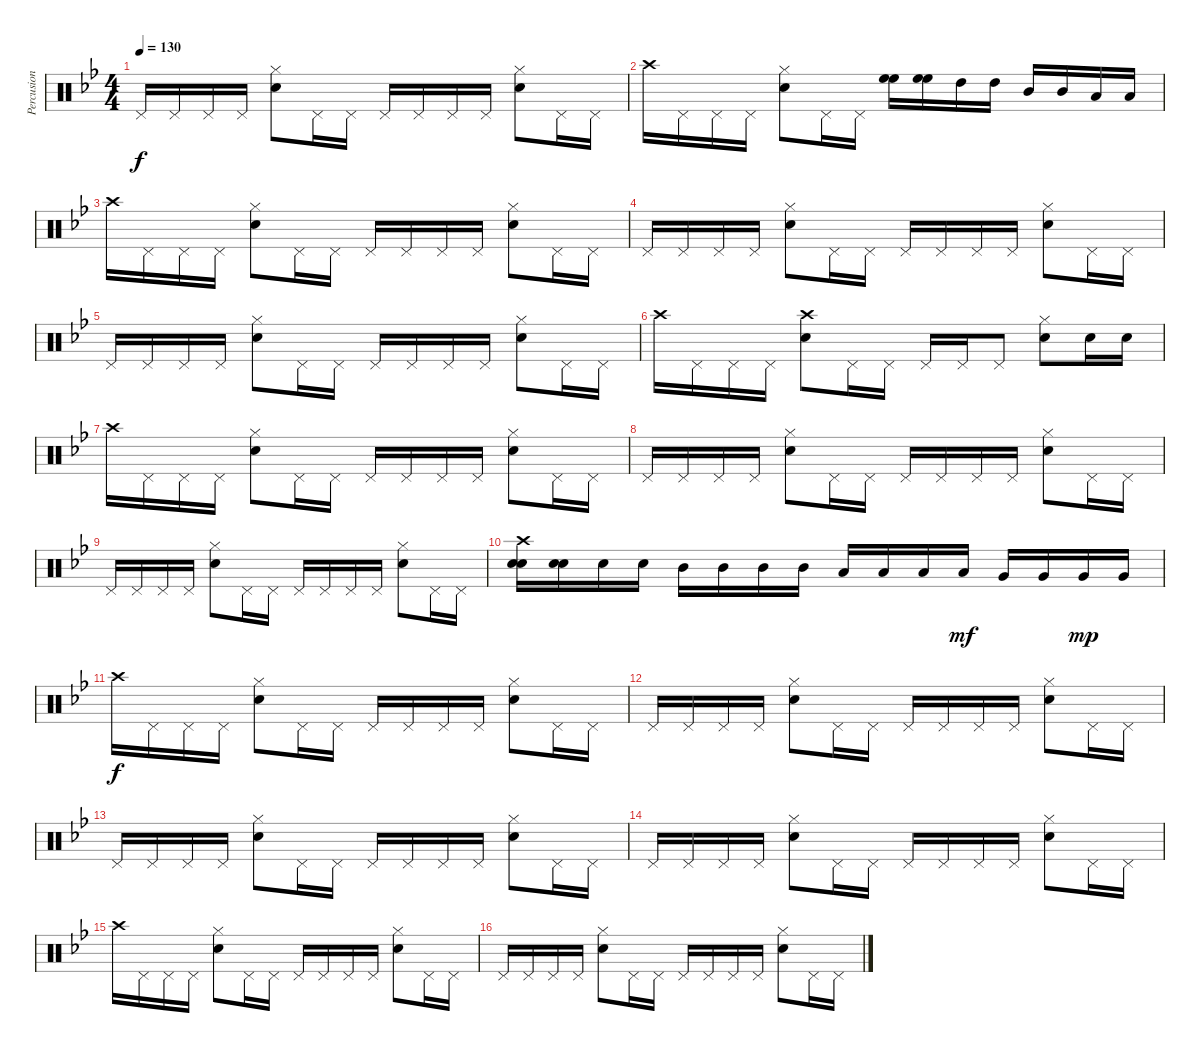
\track ("Percusion I" "Percusion ") {instrument percussion}
\staff {score}
\articulation defaults
\ts (4 4)
\tempo 130
\clef neutral
\ks gminor "Pedal Hi-Hat (hit)".16{dy f} "Pedal Hi-Hat (hit)".16 "Pedal Hi-Hat (hit)".16 "Pedal Hi-Hat (hit)".16
("Hi-Hat (closed)" "Snare (hit) 2").8 "Pedal Hi-Hat (hit)".16 "Pedal Hi-Hat (hit)".16 "Pedal Hi-Hat (hit)".16 "Pedal Hi-Hat (hit)".16 "Pedal Hi-Hat (hit)".16 "Pedal Hi-Hat (hit)".16 ("Snare (hit) 2" "Hi-Hat (closed)").8 "Pedal Hi-Hat (hit)".16 "Pedal Hi-Hat (hit)".16 |
"Crash high (hit)".16 "Pedal Hi-Hat (hit)".16 "Pedal Hi-Hat (hit)".16 "Pedal Hi-Hat (hit)".16 ("Snare (hit) 2" "Hi-Hat (closed)").8 "Pedal Hi-Hat (hit)".16 "Pedal Hi-Hat (hit)".16 ("High Floor Tom (hit)" "High Floor Tom (hit)").16 ("High Floor Tom (hit)" "High Floor Tom (hit)").16 "High Tom (hit)".16 "High Tom (hit)".16 "Mid Tom (hit)".16 "Mid Tom (hit)".16 "Low Tom (hit)".16 "Low Tom (hit)".16 |
"Crash high (hit)".16 "Pedal Hi-Hat (hit)".16 "Pedal Hi-Hat (hit)".16 "Pedal Hi-Hat (hit)".16 ("Snare (hit) 2" "Hi-Hat (closed)").8 "Pedal Hi-Hat (hit)".16 "Pedal Hi-Hat (hit)".16 "Pedal Hi-Hat (hit)".16 "Pedal Hi-Hat (hit)".16 "Pedal Hi-Hat (hit)".16 "Pedal Hi-Hat (hit)".16 ("Snare (hit) 2" "Hi-Hat (closed)").8 "Pedal Hi-Hat (hit)".16 "Pedal Hi-Hat (hit)".16 |
"Pedal Hi-Hat (hit)".16 "Pedal Hi-Hat (hit)".16 "Pedal Hi-Hat (hit)".16 "Pedal Hi-Hat (hit)".16 ("Snare (hit) 2" "Hi-Hat (closed)").8 "Pedal Hi-Hat (hit)".16 "Pedal Hi-Hat (hit)".16 "Pedal Hi-Hat (hit)".16 "Pedal Hi-Hat (hit)".16 "Pedal Hi-Hat (hit)".16 "Pedal Hi-Hat (hit)".16 ("Snare (hit) 2" "Hi-Hat (closed)").8 "Pedal Hi-Hat (hit)".16 "Pedal Hi-Hat (hit)".16 |
"Pedal Hi-Hat (hit)".16 "Pedal Hi-Hat (hit)".16 "Pedal Hi-Hat (hit)".16 "Pedal Hi-Hat (hit)".16 ("Hi-Hat (closed)" "Snare (hit) 2").8 "Pedal Hi-Hat (hit)".16 "Pedal Hi-Hat (hit)".16 "Pedal Hi-Hat (hit)".16 "Pedal Hi-Hat (hit)".16 "Pedal Hi-Hat (hit)".16 "Pedal Hi-Hat (hit)".16 ("Snare (hit) 2" "Hi-Hat (closed)").8 "Pedal Hi-Hat (hit)".16 "Pedal Hi-Hat (hit)".16 |
"Crash high (hit)".16 "Pedal Hi-Hat (hit)".16 "Pedal Hi-Hat (hit)".16 "Pedal Hi-Hat (hit)".16 ("Snare (hit) 2" "Crash high (hit)").8 "Pedal Hi-Hat (hit)".16 "Pedal Hi-Hat (hit)".16 "Pedal Hi-Hat (hit)".16 "Pedal Hi-Hat (hit)".16 "Pedal Hi-Hat (hit)".8 ("Snare (hit) 2" "Hi-Hat (closed)").8 "Snare (hit) 2".16 "Snare (hit) 2".16 |
"Crash high (hit)".16 "Pedal Hi-Hat (hit)".16 "Pedal Hi-Hat (hit)".16 "Pedal Hi-Hat (hit)".16 ("Snare (hit) 2" "Hi-Hat (closed)").8 "Pedal Hi-Hat (hit)".16 "Pedal Hi-Hat (hit)".16 "Pedal Hi-Hat (hit)".16 "Pedal Hi-Hat (hit)".16 "Pedal Hi-Hat (hit)".16 "Pedal Hi-Hat (hit)".16 ("Snare (hit) 2" "Hi-Hat (closed)").8 "Pedal Hi-Hat (hit)".16 "Pedal Hi-Hat (hit)".16 |
"Pedal Hi-Hat (hit)".16 "Pedal Hi-Hat (hit)".16 "Pedal Hi-Hat (hit)".16 "Pedal Hi-Hat (hit)".16 ("Hi-Hat (closed)" "Snare (hit) 2").8 "Pedal Hi-Hat (hit)".16 "Pedal Hi-Hat (hit)".16 "Pedal Hi-Hat (hit)".16 "Pedal Hi-Hat (hit)".16 "Pedal Hi-Hat (hit)".16 "Pedal Hi-Hat (hit)".16 ("Snare (hit) 2" "Hi-Hat (closed)").8 "Pedal Hi-Hat (hit)".16 "Pedal Hi-Hat (hit)".16 |
"Pedal Hi-Hat (hit)".16 "Pedal Hi-Hat (hit)".16 "Pedal Hi-Hat (hit)".16 "Pedal Hi-Hat (hit)".16 ("Hi-Hat (closed)" "Snare (hit) 2").8 "Pedal Hi-Hat (hit)".16 "Pedal Hi-Hat (hit)".16 "Pedal Hi-Hat (hit)".16 "Pedal Hi-Hat (hit)".16 "Pedal Hi-Hat (hit)".16 "Pedal Hi-Hat (hit)".16 ("Snare (hit) 2" "Hi-Hat (closed)").8 "Pedal Hi-Hat (hit)".16 "Pedal Hi-Hat (hit)".16 |
("Snare (hit) 2" "Crash high (hit)" "Snare (hit) 2").16 ("Snare (hit) 2" "Snare (hit) 2").16 "Snare (hit) 2".16 "Snare (hit) 2".16 "Mid Tom (hit)".16 "Mid Tom (hit)".16 "Mid Tom (hit)".16 "Mid Tom (hit)".16 "Low Tom (hit)".16 "Low Tom (hit)".16 "Low Tom (hit)".16 "Low Tom (hit)".16{dy mf} "Very Low Tom (hit)".16 "Very Low Tom (hit)".16 "Very Low Tom (hit)".16{dy mp} "Very Low Tom (hit)".16 |
"Crash high (hit)".16{dy f} "Pedal Hi-Hat (hit)".16 "Pedal Hi-Hat (hit)".16 "Pedal Hi-Hat (hit)".16 ("Snare (hit) 2" "Hi-Hat (closed)").8 "Pedal Hi-Hat (hit)".16 "Pedal Hi-Hat (hit)".16 "Pedal Hi-Hat (hit)".16 "Pedal Hi-Hat (hit)".16 "Pedal Hi-Hat (hit)".16 "Pedal Hi-Hat (hit)".16 ("Snare (hit) 2" "Hi-Hat (closed)").8 "Pedal Hi-Hat (hit)".16 "Pedal Hi-Hat (hit)".16 |
"Pedal Hi-Hat (hit)".16 "Pedal Hi-Hat (hit)".16 "Pedal Hi-Hat (hit)".16 "Pedal Hi-Hat (hit)".16 ("Hi-Hat (closed)" "Snare (hit) 2").8 "Pedal Hi-Hat (hit)".16 "Pedal Hi-Hat (hit)".16 "Pedal Hi-Hat (hit)".16 "Pedal Hi-Hat (hit)".16 "Pedal Hi-Hat (hit)".16 "Pedal Hi-Hat (hit)".16 ("Snare (hit) 2" "Hi-Hat (closed)").8 "Pedal Hi-Hat (hit)".16 "Pedal Hi-Hat (hit)".16 |
"Pedal Hi-Hat (hit)".16 "Pedal Hi-Hat (hit)".16 "Pedal Hi-Hat (hit)".16 "Pedal Hi-Hat (hit)".16 ("Hi-Hat (closed)" "Snare (hit) 2").8 "Pedal Hi-Hat (hit)".16 "Pedal Hi-Hat (hit)".16 "Pedal Hi-Hat (hit)".16 "Pedal Hi-Hat (hit)".16 "Pedal Hi-Hat (hit)".16 "Pedal Hi-Hat (hit)".16 ("Snare (hit) 2" "Hi-Hat (closed)").8 "Pedal Hi-Hat (hit)".16 "Pedal Hi-Hat (hit)".16 |
"Pedal Hi-Hat (hit)".16 "Pedal Hi-Hat (hit)".16 "Pedal Hi-Hat (hit)".16 "Pedal Hi-Hat (hit)".16 ("Hi-Hat (closed)" "Snare (hit) 2").8 "Pedal Hi-Hat (hit)".16 "Pedal Hi-Hat (hit)".16 "Pedal Hi-Hat (hit)".16 "Pedal Hi-Hat (hit)".16 "Pedal Hi-Hat (hit)".16 "Pedal Hi-Hat (hit)".16 ("Snare (hit) 2" "Hi-Hat (closed)").8 "Pedal Hi-Hat (hit)".16 "Pedal Hi-Hat (hit)".16 |
"Crash high (hit)".16 "Pedal Hi-Hat (hit)".16 "Pedal Hi-Hat (hit)".16 "Pedal Hi-Hat (hit)".16 ("Snare (hit) 2" "Hi-Hat (closed)").8 "Pedal Hi-Hat (hit)".16 "Pedal Hi-Hat (hit)".16 "Pedal Hi-Hat (hit)".16 "Pedal Hi-Hat (hit)".16 "Pedal Hi-Hat (hit)".16 "Pedal Hi-Hat (hit)".16 ("Snare (hit) 2" "Hi-Hat (closed)").8 "Pedal Hi-Hat (hit)".16 "Pedal Hi-Hat (hit)".16 |
"Pedal Hi-Hat (hit)".16 "Pedal Hi-Hat (hit)".16 "Pedal Hi-Hat (hit)".16 "Pedal Hi-Hat (hit)".16 ("Hi-Hat (closed)" "Snare (hit) 2").8 "Pedal Hi-Hat (hit)".16 "Pedal Hi-Hat (hit)".16 "Pedal Hi-Hat (hit)".16 "Pedal Hi-Hat (hit)".16 "Pedal Hi-Hat (hit)".16 "Pedal Hi-Hat (hit)".16 ("Snare (hit) 2" "Hi-Hat (closed)").8 "Pedal Hi-Hat (hit)".16 "Pedal Hi-Hat (hit)".16
